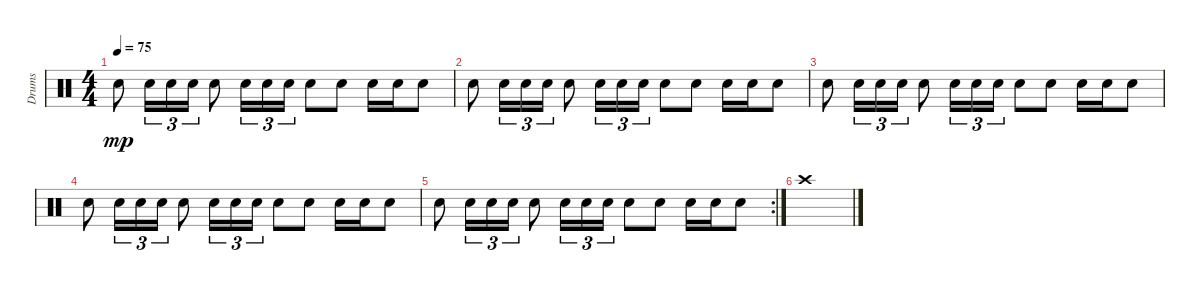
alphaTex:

\track ("Drums" "Drums") {instrument percussion}
\staff {score}
\articulation defaults
\ts (4 4)
\tempo 75
\clef neutral
\ks c "Snare (hit) 2".8{dy mp} "Snare (hit) 2".16{tu (3 2)} "Snare (hit) 2".16{tu (3 2)} "Snare (hit) 2".16{tu (3 2)} "Snare (hit) 2".8 "Snare (hit) 2".16{tu (3 2)} "Snare (hit) 2".16{tu (3 2)} "Snare (hit) 2".16{tu (3 2)} "Snare (hit) 2".8 "Snare (hit) 2".8 "Snare (hit) 2".16 "Snare (hit) 2".16 "Snare (hit) 2".8
|
"Snare (hit) 2".8 "Snare (hit) 2".16{tu (3 2)} "Snare (hit) 2".16{tu (3 2)} "Snare (hit) 2".16{tu (3 2)} "Snare (hit) 2".8 "Snare (hit) 2".16{tu (3 2)} "Snare (hit) 2".16{tu (3 2)} "Snare (hit) 2".16{tu (3 2)} "Snare (hit) 2".8 "Snare (hit) 2".8 "Snare (hit) 2".16 "Snare (hit) 2".16 "Snare (hit) 2".8 |
"Snare (hit) 2".8 "Snare (hit) 2".16{tu (3 2)} "Snare (hit) 2".16{tu (3 2)} "Snare (hit) 2".16{tu (3 2)} "Snare (hit) 2".8 "Snare (hit) 2".16{tu (3 2)} "Snare (hit) 2".16{tu (3 2)} "Snare (hit) 2".16{tu (3 2)} "Snare (hit) 2".8 "Snare (hit) 2".8 "Snare (hit) 2".16 "Snare (hit) 2".16 "Snare (hit) 2".8 |
"Snare (hit) 2".8 "Snare (hit) 2".16{tu (3 2)} "Snare (hit) 2".16{tu (3 2)} "Snare (hit) 2".16{tu (3 2)} "Snare (hit) 2".8 "Snare (hit) 2".16{tu (3 2)} "Snare (hit) 2".16{tu (3 2)} "Snare (hit) 2".16{tu (3 2)} "Snare (hit) 2".8 "Snare (hit) 2".8 "Snare (hit) 2".16 "Snare (hit) 2".16 "Snare (hit) 2".8 |
\rc 2 "Snare (hit) 2".8 "Snare (hit) 2".16{tu (3 2)} "Snare (hit) 2".16{tu (3 2)} "Snare (hit) 2".16{tu (3 2)} "Snare (hit) 2".8 "Snare (hit) 2".16{tu (3 2)} "Snare (hit) 2".16{tu (3 2)} "Snare (hit) 2".16{tu (3 2)} "Snare (hit) 2".8 "Snare (hit) 2".8 "Snare (hit) 2".16 "Snare (hit) 2".16 "Snare (hit) 2".8
|
"Crash high (hit)".1
